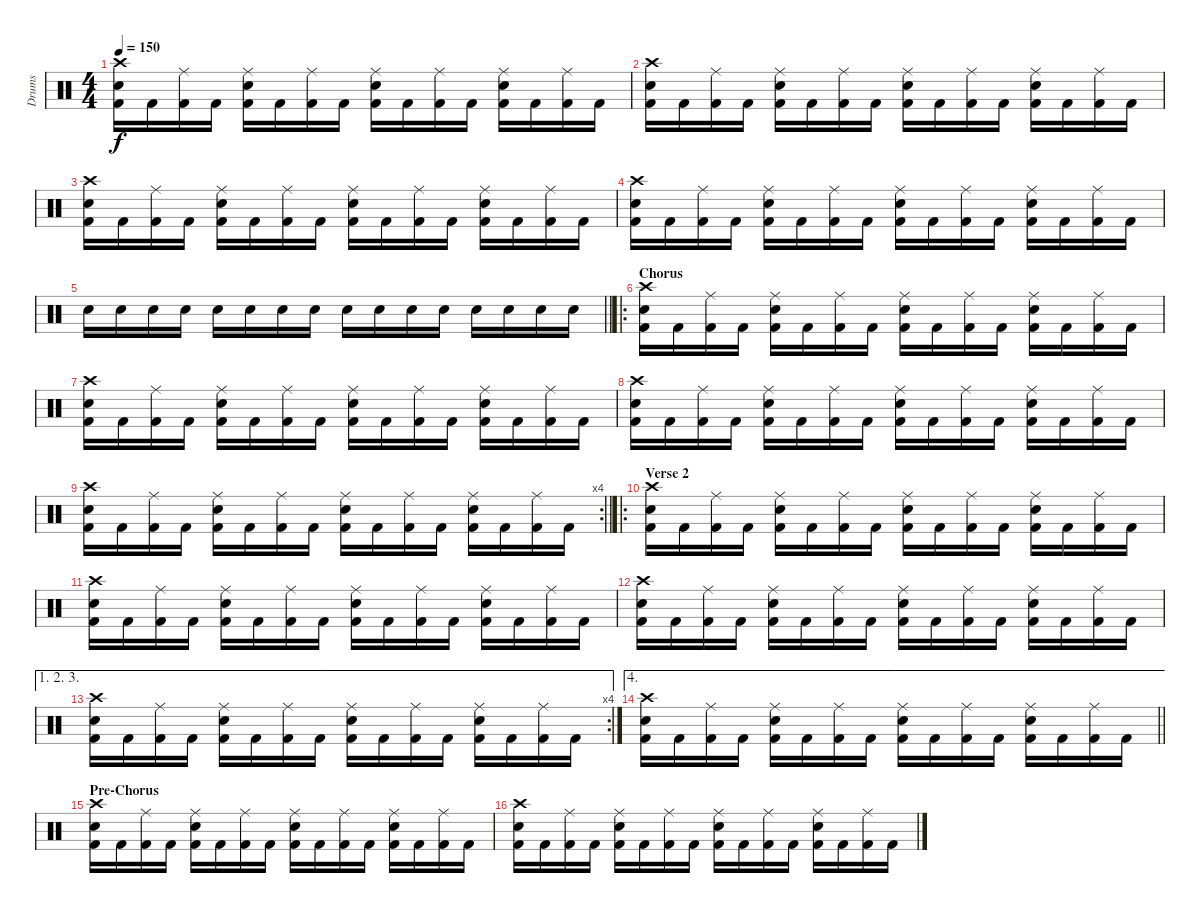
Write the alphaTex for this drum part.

\track ("Drums" "Drums") {instrument percussion}
\staff {score}
\articulation defaults
\ts (4 4)
\tempo 150
\clef neutral
\ks c
("Kick (hit) 2" "Snare (hit) 2" "Crash high (hit)").16{dy f} "Kick (hit) 2".16 ("Kick (hit) 2" "Ride (middle)").16 "Kick (hit) 2".16 ("Kick (hit) 2" "Snare (hit) 2" "Ride (middle)").16 "Kick (hit) 2".16 ("Kick (hit) 2" "Ride (middle)").16 "Kick (hit) 2".16 ("Kick (hit) 2" "Snare (hit) 2" "Ride (middle)").16 "Kick (hit) 2".16 ("Kick (hit) 2" "Ride (middle)").16 "Kick (hit) 2".16 ("Kick (hit) 2" "Snare (hit) 2" "Ride (middle)").16 "Kick (hit) 2".16 ("Kick (hit) 2" "Ride (middle)").16 "Kick (hit) 2".16 |
("Kick (hit) 2" "Snare (hit) 2" "Crash high (hit)").16 "Kick (hit) 2".16 ("Kick (hit) 2" "Ride (middle)").16 "Kick (hit) 2".16 ("Kick (hit) 2" "Snare (hit) 2" "Ride (middle)").16 "Kick (hit) 2".16 ("Kick (hit) 2" "Ride (middle)").16 "Kick (hit) 2".16 ("Kick (hit) 2" "Snare (hit) 2" "Ride (middle)").16 "Kick (hit) 2".16 ("Kick (hit) 2" "Ride (middle)").16 "Kick (hit) 2".16 ("Kick (hit) 2" "Snare (hit) 2" "Ride (middle)").16 "Kick (hit) 2".16 ("Kick (hit) 2" "Ride (middle)").16 "Kick (hit) 2".16 |
("Kick (hit) 2" "Snare (hit) 2" "Crash high (hit)").16 "Kick (hit) 2".16 ("Kick (hit) 2" "Ride (middle)").16 "Kick (hit) 2".16 ("Kick (hit) 2" "Snare (hit) 2" "Ride (middle)").16 "Kick (hit) 2".16 ("Kick (hit) 2" "Ride (middle)").16 "Kick (hit) 2".16 ("Kick (hit) 2" "Snare (hit) 2" "Ride (middle)").16 "Kick (hit) 2".16 ("Kick (hit) 2" "Ride (middle)").16 "Kick (hit) 2".16 ("Kick (hit) 2" "Snare (hit) 2" "Ride (middle)").16 "Kick (hit) 2".16 ("Kick (hit) 2" "Ride (middle)").16 "Kick (hit) 2".16 |
("Kick (hit) 2" "Snare (hit) 2" "Crash high (hit)").16 "Kick (hit) 2".16 ("Kick (hit) 2" "Ride (middle)").16 "Kick (hit) 2".16 ("Kick (hit) 2" "Snare (hit) 2" "Ride (middle)").16 "Kick (hit) 2".16 ("Kick (hit) 2" "Ride (middle)").16 "Kick (hit) 2".16 ("Kick (hit) 2" "Snare (hit) 2" "Ride (middle)").16 "Kick (hit) 2".16 ("Kick (hit) 2" "Ride (middle)").16 "Kick (hit) 2".16 ("Kick (hit) 2" "Snare (hit) 2" "Ride (middle)").16 "Kick (hit) 2".16 ("Kick (hit) 2" "Ride (middle)").16 "Kick (hit) 2".16 |
\barLineRight lightlight "Snare (hit) 2".16 "Snare (hit) 2".16 "Snare (hit) 2".16 "Snare (hit) 2".16 "Snare (hit) 2".16 "Snare (hit) 2".16 "Snare (hit) 2".16 "Snare (hit) 2".16 "Snare (hit) 2".16 "Snare (hit) 2".16 "Snare (hit) 2".16 "Snare (hit) 2".16 "Snare (hit) 2".16 "Snare (hit) 2".16 "Snare (hit) 2".16 "Snare (hit) 2".16
|
\ro
\section ("" "Chorus")
("Kick (hit) 2" "Snare (hit) 2" "Crash high (hit)").16 "Kick (hit) 2".16 ("Kick (hit) 2" "Ride (middle)").16 "Kick (hit) 2".16 ("Kick (hit) 2" "Snare (hit) 2" "Ride (middle)").16 "Kick (hit) 2".16 ("Kick (hit) 2" "Ride (middle)").16 "Kick (hit) 2".16 ("Kick (hit) 2" "Snare (hit) 2" "Ride (middle)").16 "Kick (hit) 2".16 ("Kick (hit) 2" "Ride (middle)").16 "Kick (hit) 2".16 ("Kick (hit) 2" "Snare (hit) 2" "Ride (middle)").16 "Kick (hit) 2".16 ("Kick (hit) 2" "Ride (middle)").16 "Kick (hit) 2".16 |
("Kick (hit) 2" "Snare (hit) 2" "Crash high (hit)").16 "Kick (hit) 2".16 ("Kick (hit) 2" "Ride (middle)").16 "Kick (hit) 2".16 ("Kick (hit) 2" "Snare (hit) 2" "Ride (middle)").16 "Kick (hit) 2".16 ("Kick (hit) 2" "Ride (middle)").16 "Kick (hit) 2".16 ("Kick (hit) 2" "Snare (hit) 2" "Ride (middle)").16 "Kick (hit) 2".16 ("Kick (hit) 2" "Ride (middle)").16 "Kick (hit) 2".16 ("Kick (hit) 2" "Snare (hit) 2" "Ride (middle)").16 "Kick (hit) 2".16 ("Kick (hit) 2" "Ride (middle)").16 "Kick (hit) 2".16 |
("Kick (hit) 2" "Snare (hit) 2" "Crash high (hit)").16 "Kick (hit) 2".16 ("Kick (hit) 2" "Ride (middle)").16 "Kick (hit) 2".16 ("Kick (hit) 2" "Snare (hit) 2" "Ride (middle)").16 "Kick (hit) 2".16 ("Kick (hit) 2" "Ride (middle)").16 "Kick (hit) 2".16 ("Kick (hit) 2" "Snare (hit) 2" "Ride (middle)").16 "Kick (hit) 2".16 ("Kick (hit) 2" "Ride (middle)").16 "Kick (hit) 2".16 ("Kick (hit) 2" "Snare (hit) 2" "Ride (middle)").16 "Kick (hit) 2".16 ("Kick (hit) 2" "Ride (middle)").16 "Kick (hit) 2".16 |
\rc 4
\barLineRight lightlight
("Kick (hit) 2" "Snare (hit) 2" "Crash high (hit)").16 "Kick (hit) 2".16 ("Kick (hit) 2" "Ride (middle)").16 "Kick (hit) 2".16 ("Kick (hit) 2" "Snare (hit) 2" "Ride (middle)").16 "Kick (hit) 2".16 ("Kick (hit) 2" "Ride (middle)").16 "Kick (hit) 2".16 ("Kick (hit) 2" "Snare (hit) 2" "Ride (middle)").16 "Kick (hit) 2".16 ("Kick (hit) 2" "Ride (middle)").16 "Kick (hit) 2".16 ("Kick (hit) 2" "Snare (hit) 2" "Ride (middle)").16 "Kick (hit) 2".16 ("Kick (hit) 2" "Ride (middle)").16 "Kick (hit) 2".16 |
\ro
\section ("" "Verse 2")
("Kick (hit) 2" "Snare (hit) 2" "Crash high (hit)").16 "Kick (hit) 2".16 ("Kick (hit) 2" "Ride (middle)").16 "Kick (hit) 2".16 ("Kick (hit) 2" "Snare (hit) 2" "Ride (middle)").16 "Kick (hit) 2".16 ("Kick (hit) 2" "Ride (middle)").16 "Kick (hit) 2".16 ("Kick (hit) 2" "Snare (hit) 2" "Ride (middle)").16 "Kick (hit) 2".16 ("Kick (hit) 2" "Ride (middle)").16 "Kick (hit) 2".16 ("Kick (hit) 2" "Snare (hit) 2" "Ride (middle)").16 "Kick (hit) 2".16 ("Kick (hit) 2" "Ride (middle)").16 "Kick (hit) 2".16 |
("Kick (hit) 2" "Snare (hit) 2" "Crash high (hit)").16 "Kick (hit) 2".16 ("Kick (hit) 2" "Ride (middle)").16 "Kick (hit) 2".16 ("Kick (hit) 2" "Snare (hit) 2" "Ride (middle)").16 "Kick (hit) 2".16 ("Kick (hit) 2" "Ride (middle)").16 "Kick (hit) 2".16 ("Kick (hit) 2" "Snare (hit) 2" "Ride (middle)").16 "Kick (hit) 2".16 ("Kick (hit) 2" "Ride (middle)").16 "Kick (hit) 2".16 ("Kick (hit) 2" "Snare (hit) 2" "Ride (middle)").16 "Kick (hit) 2".16 ("Kick (hit) 2" "Ride (middle)").16 "Kick (hit) 2".16 |
("Kick (hit) 2" "Snare (hit) 2" "Crash high (hit)").16 "Kick (hit) 2".16 ("Kick (hit) 2" "Ride (middle)").16 "Kick (hit) 2".16 ("Kick (hit) 2" "Snare (hit) 2" "Ride (middle)").16 "Kick (hit) 2".16 ("Kick (hit) 2" "Ride (middle)").16 "Kick (hit) 2".16 ("Kick (hit) 2" "Snare (hit) 2" "Ride (middle)").16 "Kick (hit) 2".16 ("Kick (hit) 2" "Ride (middle)").16 "Kick (hit) 2".16 ("Kick (hit) 2" "Snare (hit) 2" "Ride (middle)").16 "Kick (hit) 2".16 ("Kick (hit) 2" "Ride (middle)").16 "Kick (hit) 2".16 |
\ae (1 2 3)
\rc 4
("Kick (hit) 2" "Snare (hit) 2" "Crash high (hit)").16 "Kick (hit) 2".16 ("Kick (hit) 2" "Ride (middle)").16 "Kick (hit) 2".16 ("Kick (hit) 2" "Snare (hit) 2" "Ride (middle)").16 "Kick (hit) 2".16 ("Kick (hit) 2" "Ride (middle)").16 "Kick (hit) 2".16 ("Kick (hit) 2" "Snare (hit) 2" "Ride (middle)").16 "Kick (hit) 2".16 ("Kick (hit) 2" "Ride (middle)").16 "Kick (hit) 2".16 ("Kick (hit) 2" "Snare (hit) 2" "Ride (middle)").16 "Kick (hit) 2".16 ("Kick (hit) 2" "Ride (middle)").16 "Kick (hit) 2".16 |
\ae 4
\barLineRight lightlight
("Kick (hit) 2" "Snare (hit) 2" "Crash high (hit)").16 "Kick (hit) 2".16 ("Kick (hit) 2" "Ride (middle)").16 "Kick (hit) 2".16 ("Kick (hit) 2" "Snare (hit) 2" "Ride (middle)").16 "Kick (hit) 2".16 ("Kick (hit) 2" "Ride (middle)").16 "Kick (hit) 2".16 ("Kick (hit) 2" "Snare (hit) 2" "Ride (middle)").16 "Kick (hit) 2".16 ("Kick (hit) 2" "Ride (middle)").16 "Kick (hit) 2".16 ("Kick (hit) 2" "Snare (hit) 2" "Ride (middle)").16 "Kick (hit) 2".16 ("Kick (hit) 2" "Ride (middle)").16 "Kick (hit) 2".16 |
\section ("" "Pre-Chorus")
("Kick (hit) 2" "Snare (hit) 2" "Crash high (hit)").16 "Kick (hit) 2".16 ("Kick (hit) 2" "Ride (middle)").16 "Kick (hit) 2".16 ("Kick (hit) 2" "Snare (hit) 2" "Ride (middle)").16 "Kick (hit) 2".16 ("Kick (hit) 2" "Ride (middle)").16 "Kick (hit) 2".16 ("Kick (hit) 2" "Snare (hit) 2" "Ride (middle)").16 "Kick (hit) 2".16 ("Kick (hit) 2" "Ride (middle)").16 "Kick (hit) 2".16 ("Kick (hit) 2" "Snare (hit) 2" "Ride (middle)").16 "Kick (hit) 2".16 ("Kick (hit) 2" "Ride (middle)").16 "Kick (hit) 2".16 |
("Kick (hit) 2" "Snare (hit) 2" "Crash high (hit)").16 "Kick (hit) 2".16 ("Kick (hit) 2" "Ride (middle)").16 "Kick (hit) 2".16 ("Kick (hit) 2" "Snare (hit) 2" "Ride (middle)").16 "Kick (hit) 2".16 ("Kick (hit) 2" "Ride (middle)").16 "Kick (hit) 2".16 ("Kick (hit) 2" "Snare (hit) 2" "Ride (middle)").16 "Kick (hit) 2".16 ("Kick (hit) 2" "Ride (middle)").16 "Kick (hit) 2".16 ("Kick (hit) 2" "Snare (hit) 2" "Ride (middle)").16 "Kick (hit) 2".16 ("Kick (hit) 2" "Ride (middle)").16 "Kick (hit) 2".16
